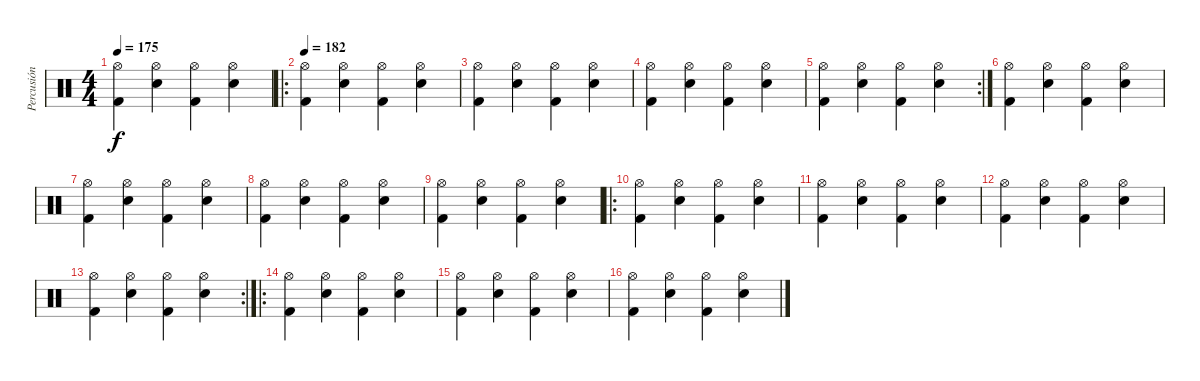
\track ("Percusión" "Percusión") {instrument percussion}
\staff {score}
\articulation defaults
\ts (4 4)
\tempo 175
\clef neutral
\ks c
("Kick (hit) 2" "Hi-Hat (open)").4{dy f} ("Electric Snare (hit)" "Hi-Hat (open)").4 ("Kick (hit) 2" "Hi-Hat (open)").4 ("Electric Snare (hit)" "Hi-Hat (open)").4 |
\ro
\tempo 182
("Kick (hit) 2" "Hi-Hat (open)").4 ("Electric Snare (hit)" "Hi-Hat (open)").4 ("Kick (hit) 2" "Hi-Hat (open)").4 ("Electric Snare (hit)" "Hi-Hat (open)").4 |
("Kick (hit) 2" "Hi-Hat (open)").4 ("Electric Snare (hit)" "Hi-Hat (open)").4 ("Kick (hit) 2" "Hi-Hat (open)").4 ("Electric Snare (hit)" "Hi-Hat (open)").4 |
("Kick (hit) 2" "Hi-Hat (open)").4 ("Electric Snare (hit)" "Hi-Hat (open)").4 ("Kick (hit) 2" "Hi-Hat (open)").4 ("Electric Snare (hit)" "Hi-Hat (open)").4 |
\rc 2
("Kick (hit) 2" "Hi-Hat (open)").4 ("Electric Snare (hit)" "Hi-Hat (open)").4 ("Kick (hit) 2" "Hi-Hat (open)").4 ("Electric Snare (hit)" "Hi-Hat (open)").4 |
("Kick (hit) 2" "Hi-Hat (open)").4 ("Electric Snare (hit)" "Hi-Hat (open)").4 ("Kick (hit) 2" "Hi-Hat (open)").4 ("Electric Snare (hit)" "Hi-Hat (open)").4 |
("Kick (hit) 2" "Hi-Hat (open)").4 ("Electric Snare (hit)" "Hi-Hat (open)").4 ("Kick (hit) 2" "Hi-Hat (open)").4 ("Electric Snare (hit)" "Hi-Hat (open)").4 |
("Kick (hit) 2" "Hi-Hat (open)").4 ("Electric Snare (hit)" "Hi-Hat (open)").4 ("Kick (hit) 2" "Hi-Hat (open)").4 ("Electric Snare (hit)" "Hi-Hat (open)").4 |
("Kick (hit) 2" "Hi-Hat (open)").4 ("Electric Snare (hit)" "Hi-Hat (open)").4 ("Kick (hit) 2" "Hi-Hat (open)").4 ("Electric Snare (hit)" "Hi-Hat (open)").4 |
\ro
("Kick (hit) 2" "Hi-Hat (open)").4 ("Electric Snare (hit)" "Hi-Hat (open)").4 ("Kick (hit) 2" "Hi-Hat (open)").4 ("Electric Snare (hit)" "Hi-Hat (open)").4 |
("Kick (hit) 2" "Hi-Hat (open)").4 ("Electric Snare (hit)" "Hi-Hat (open)").4 ("Kick (hit) 2" "Hi-Hat (open)").4 ("Electric Snare (hit)" "Hi-Hat (open)").4 |
("Kick (hit) 2" "Hi-Hat (open)").4 ("Electric Snare (hit)" "Hi-Hat (open)").4 ("Kick (hit) 2" "Hi-Hat (open)").4 ("Electric Snare (hit)" "Hi-Hat (open)").4 |
\rc 2
("Kick (hit) 2" "Hi-Hat (open)").4 ("Electric Snare (hit)" "Hi-Hat (open)").4 ("Kick (hit) 2" "Hi-Hat (open)").4 ("Electric Snare (hit)" "Hi-Hat (open)").4 |
\ro
("Kick (hit) 2" "Hi-Hat (open)").4 ("Electric Snare (hit)" "Hi-Hat (open)").4 ("Kick (hit) 2" "Hi-Hat (open)").4 ("Electric Snare (hit)" "Hi-Hat (open)").4 |
("Kick (hit) 2" "Hi-Hat (open)").4 ("Electric Snare (hit)" "Hi-Hat (open)").4 ("Kick (hit) 2" "Hi-Hat (open)").4 ("Electric Snare (hit)" "Hi-Hat (open)").4 |
("Kick (hit) 2" "Hi-Hat (open)").4 ("Electric Snare (hit)" "Hi-Hat (open)").4 ("Kick (hit) 2" "Hi-Hat (open)").4 ("Electric Snare (hit)" "Hi-Hat (open)").4
